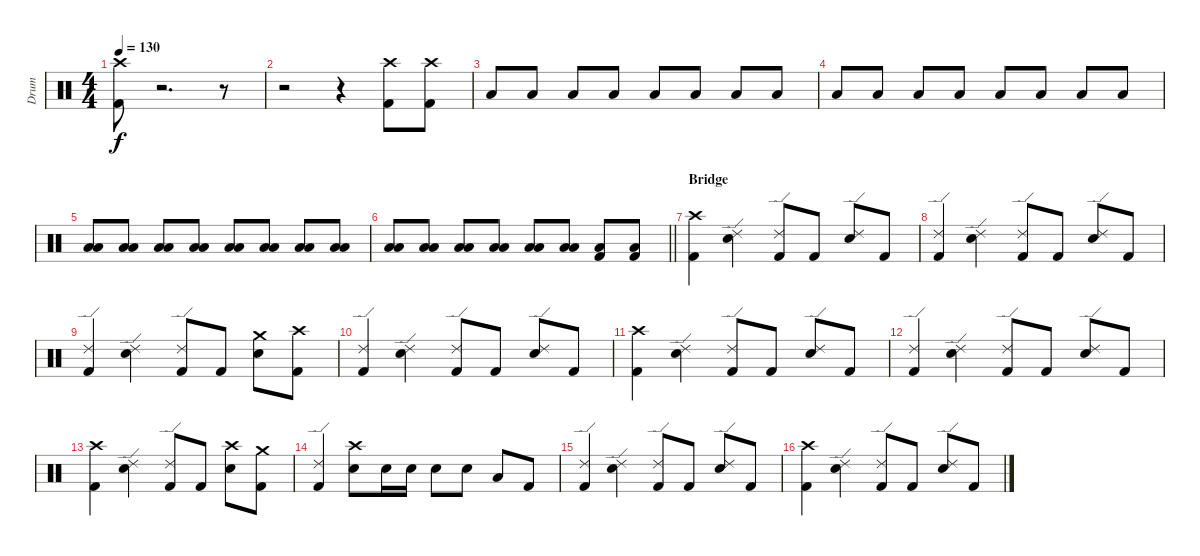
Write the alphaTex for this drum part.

\track ("Drum" "Drum") {instrument percussion}
\staff {score}
\articulation defaults
\ts (4 4)
\tempo 130
\clef neutral
\ks c
("Crash high (hit)" "Kick (hit) 2").8{dy f} r.2{d} r.8 |
r.2 r.4 ("Crash high (hit)" "Kick (hit) 2").8 ("Crash high (hit)" "Kick (hit) 2").8 |
"Low Tom (hit)".8 "Low Tom (hit)".8 "Low Tom (hit)".8 "Low Tom (hit)".8 "Low Tom (hit)".8 "Low Tom (hit)".8 "Low Tom (hit)".8 "Low Tom (hit)".8 |
"Low Tom (hit)".8 "Low Tom (hit)".8 "Low Tom (hit)".8 "Low Tom (hit)".8 "Low Tom (hit)".8 "Low Tom (hit)".8 "Low Tom (hit)".8 "Low Tom (hit)".8 |
("Low Tom (hit)" "Low Tom (hit)").8 ("Low Tom (hit)" "Low Tom (hit)").8 ("Low Tom (hit)" "Low Tom (hit)").8 ("Low Tom (hit)" "Low Tom (hit)").8 ("Low Tom (hit)" "Low Tom (hit)").8 ("Low Tom (hit)" "Low Tom (hit)").8 ("Low Tom (hit)" "Low Tom (hit)").8 ("Low Tom (hit)" "Low Tom (hit)").8 |
\barLineRight lightlight
("Low Tom (hit)" "Low Tom (hit)").8 ("Low Tom (hit)" "Low Tom (hit)").8 ("Low Tom (hit)" "Low Tom (hit)").8 ("Low Tom (hit)" "Low Tom (hit)").8 ("Low Tom (hit)" "Low Tom (hit)").8 ("Low Tom (hit)" "Low Tom (hit)").8 ("Low Tom (hit)" "Kick (hit) 2").8 ("Low Tom (hit)" "Kick (hit) 2").8 |
\section ("" "Bridge")
("Crash high (hit)" "Kick (hit) 2").4 ("Ride (edge) 2" "Electric Snare (hit)").4 ("Ride (edge) 2" "Kick (hit) 2").8 "Kick (hit) 2".8 ("Ride (edge) 2" "Electric Snare (hit)").8 "Kick (hit) 2".8 |
("Ride (edge) 2" "Kick (hit) 2").4 ("Ride (edge) 2" "Electric Snare (hit)").4 ("Ride (edge) 2" "Kick (hit) 2").8 "Kick (hit) 2".8 ("Ride (edge) 2" "Electric Snare (hit)").8 "Kick (hit) 2".8 |
("Ride (edge) 2" "Kick (hit) 2").4 ("Ride (edge) 2" "Electric Snare (hit)").4 ("Ride (edge) 2" "Kick (hit) 2").8 "Kick (hit) 2".8 ("Crash medium (hit)" "Electric Snare (hit)").8 ("Crash high (hit)" "Kick (hit) 2").8 |
("Ride (edge) 2" "Kick (hit) 2").4 ("Ride (edge) 2" "Electric Snare (hit)").4 ("Ride (edge) 2" "Kick (hit) 2").8 "Kick (hit) 2".8 ("Ride (edge) 2" "Electric Snare (hit)").8 "Kick (hit) 2".8 |
("Crash high (hit)" "Kick (hit) 2").4 ("Ride (edge) 2" "Electric Snare (hit)").4 ("Ride (edge) 2" "Kick (hit) 2").8 "Kick (hit) 2".8 ("Ride (edge) 2" "Electric Snare (hit)").8 "Kick (hit) 2".8 |
("Ride (edge) 2" "Kick (hit) 2").4 ("Ride (edge) 2" "Electric Snare (hit)").4 ("Ride (edge) 2" "Kick (hit) 2").8 "Kick (hit) 2".8 ("Ride (edge) 2" "Electric Snare (hit)").8 "Kick (hit) 2".8 |
("Crash high (hit)" "Kick (hit) 2").4 ("Ride (edge) 2" "Electric Snare (hit)").4 ("Ride (edge) 2" "Kick (hit) 2").8 "Kick (hit) 2".8 ("Crash high (hit)" "Electric Snare (hit)").8 ("Crash medium (hit)" "Kick (hit) 2").8 |
("Ride (edge) 2" "Kick (hit) 2").4 ("Crash high (hit)" "Electric Snare (hit)").8 "Electric Snare (hit)".16 "Electric Snare (hit)".16 "Electric Snare (hit)".8 "Electric Snare (hit)".8 "Low Tom (hit)".8 "Kick (hit) 2".8 |
("Ride (edge) 2" "Kick (hit) 2").4 ("Ride (edge) 2" "Electric Snare (hit)").4 ("Ride (edge) 2" "Kick (hit) 2").8 "Kick (hit) 2".8 ("Ride (edge) 2" "Electric Snare (hit)").8 "Kick (hit) 2".8 |
("Crash high (hit)" "Kick (hit) 2").4 ("Ride (edge) 2" "Electric Snare (hit)").4 ("Ride (edge) 2" "Kick (hit) 2").8 "Kick (hit) 2".8 ("Ride (edge) 2" "Electric Snare (hit)").8 "Kick (hit) 2".8
